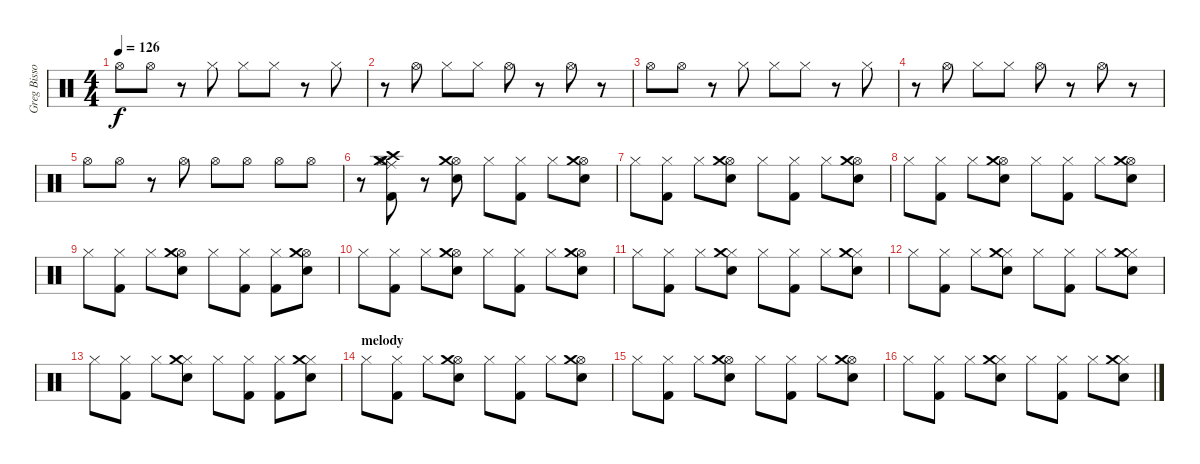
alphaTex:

\track ("Greg Bissonette - drums" "Greg Bisso") {instrument percussion}
\staff {score}
\articulation defaults
\ts (4 4)
\tempo 126
\clef neutral
\ks c "Hi-Hat (open)".8{dy f} "Hi-Hat (open)".8
r.8 "Hi-Hat (closed)".8 "Hi-Hat (closed)".8 "Hi-Hat (closed)".8 r.8 "Hi-Hat (closed)".8 |
r.8 "Hi-Hat (open)".8 "Hi-Hat (closed)".8 "Hi-Hat (closed)".8 "Hi-Hat (open)".8 r.8 "Hi-Hat (open)".8 r.8 |
"Hi-Hat (open)".8 "Hi-Hat (open)".8 r.8 "Hi-Hat (closed)".8 "Hi-Hat (closed)".8 "Hi-Hat (closed)".8 r.8 "Hi-Hat (closed)".8 |
r.8 "Hi-Hat (open)".8 "Hi-Hat (closed)".8 "Hi-Hat (closed)".8 "Hi-Hat (open)".8 r.8 "Hi-Hat (open)".8 r.8 |
"Hi-Hat (open)".8 "Hi-Hat (open)".8 r.8 "Hi-Hat (open)".8 "Hi-Hat (open)".8 "Hi-Hat (open)".8 "Hi-Hat (open)".8 "Hi-Hat (open)".8 |
r.8 ("Hi-Hat (closed)" "Hi-Hat (open)" "Crash high (hit)" "Ride (middle)" "Crash medium (hit)" "Kick (hit) 2").8 r.8 ("Hi-Hat (open)" "Snare (hit) 2" "Crash medium (hit)").8 "Hi-Hat (closed)".8 ("Hi-Hat (closed)" "Kick (hit) 2").8 "Hi-Hat (closed)".8 ("Hi-Hat (open)" "Snare (hit) 2" "Crash medium (hit)").8 |
"Hi-Hat (closed)".8 ("Hi-Hat (closed)" "Kick (hit) 2").8 "Hi-Hat (closed)".8 ("Hi-Hat (open)" "Snare (hit) 2" "Crash medium (hit)").8 "Hi-Hat (closed)".8 ("Hi-Hat (closed)" "Kick (hit) 2").8 "Hi-Hat (closed)".8 ("Hi-Hat (open)" "Snare (hit) 2" "Crash medium (hit)").8 |
"Hi-Hat (closed)".8 ("Hi-Hat (closed)" "Kick (hit) 2").8 "Hi-Hat (closed)".8 ("Hi-Hat (open)" "Snare (hit) 2" "Crash medium (hit)").8 "Hi-Hat (closed)".8 ("Hi-Hat (closed)" "Kick (hit) 2").8 "Hi-Hat (closed)".8 ("Hi-Hat (open)" "Snare (hit) 2" "Crash medium (hit)").8 |
"Hi-Hat (closed)".8 ("Hi-Hat (closed)" "Kick (hit) 2").8 "Hi-Hat (closed)".8 ("Hi-Hat (open)" "Snare (hit) 2" "Crash medium (hit)").8 "Hi-Hat (closed)".8 ("Hi-Hat (closed)" "Kick (hit) 2").8 ("Hi-Hat (closed)" "Kick (hit) 2").8 ("Hi-Hat (open)" "Snare (hit) 2" "Crash medium (hit)").8 |
"Hi-Hat (closed)".8 ("Hi-Hat (closed)" "Kick (hit) 2").8 "Hi-Hat (closed)".8 ("Hi-Hat (open)" "Snare (hit) 2" "Crash medium (hit)").8 "Hi-Hat (closed)".8 ("Hi-Hat (closed)" "Kick (hit) 2").8 "Hi-Hat (closed)".8 ("Hi-Hat (open)" "Snare (hit) 2" "Crash medium (hit)").8 |
"Hi-Hat (closed)".8 ("Hi-Hat (closed)" "Kick (hit) 2").8 "Hi-Hat (closed)".8 ("Hi-Hat (closed)" "Snare (hit) 2" "Crash medium (hit)").8 "Hi-Hat (closed)".8 ("Hi-Hat (closed)" "Kick (hit) 2").8 "Hi-Hat (closed)".8 ("Hi-Hat (closed)" "Snare (hit) 2" "Crash medium (hit)").8 |
"Hi-Hat (closed)".8 ("Hi-Hat (closed)" "Kick (hit) 2").8 "Hi-Hat (closed)".8 ("Hi-Hat (closed)" "Snare (hit) 2" "Crash medium (hit)").8 "Hi-Hat (closed)".8 ("Hi-Hat (closed)" "Kick (hit) 2").8 "Hi-Hat (closed)".8 ("Hi-Hat (closed)" "Snare (hit) 2" "Crash medium (hit)").8 |
"Hi-Hat (closed)".8 ("Hi-Hat (closed)" "Kick (hit) 2").8 "Hi-Hat (closed)".8 ("Hi-Hat (closed)" "Snare (hit) 2" "Crash medium (hit)").8 "Hi-Hat (closed)".8 ("Hi-Hat (closed)" "Kick (hit) 2").8 ("Hi-Hat (closed)" "Kick (hit) 2").8 ("Hi-Hat (closed)" "Snare (hit) 2" "Crash medium (hit)").8 |
\section ("" "melody")
"Hi-Hat (closed)".8 ("Hi-Hat (closed)" "Kick (hit) 2").8 "Hi-Hat (closed)".8 ("Hi-Hat (open)" "Snare (hit) 2" "Crash medium (hit)").8 "Hi-Hat (closed)".8 ("Hi-Hat (closed)" "Kick (hit) 2").8 "Hi-Hat (closed)".8 ("Hi-Hat (open)" "Snare (hit) 2" "Crash medium (hit)").8 |
"Hi-Hat (closed)".8 ("Hi-Hat (closed)" "Kick (hit) 2").8 "Hi-Hat (closed)".8 ("Hi-Hat (open)" "Snare (hit) 2" "Crash medium (hit)").8 "Hi-Hat (closed)".8 ("Hi-Hat (closed)" "Kick (hit) 2").8 "Hi-Hat (closed)".8 ("Hi-Hat (open)" "Snare (hit) 2" "Crash medium (hit)").8 |
"Hi-Hat (closed)".8 ("Hi-Hat (closed)" "Kick (hit) 2").8 "Hi-Hat (closed)".8 ("Hi-Hat (closed)" "Snare (hit) 2" "Crash medium (hit)").8 "Hi-Hat (closed)".8 ("Hi-Hat (closed)" "Kick (hit) 2").8 "Hi-Hat (closed)".8 ("Hi-Hat (closed)" "Snare (hit) 2" "Crash medium (hit)").8
